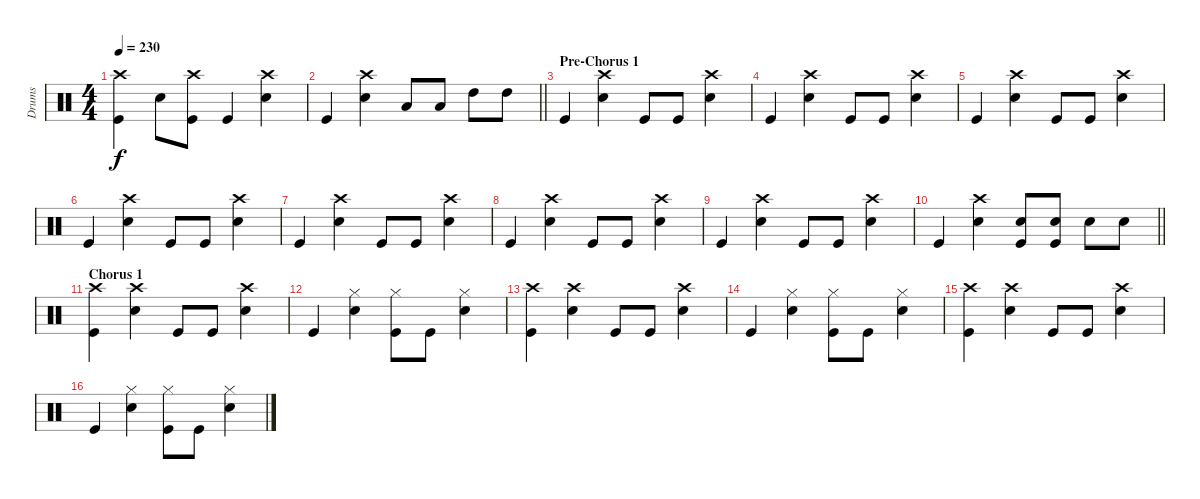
\track ("Drums" "Drums") {instrument percussion}
\staff {score}
\articulation defaults
\ts (4 4)
\tempo 230
\clef neutral
\ks c
("Crash high (hit)" "Kick (hit)").4{dy f} "Snare (hit) 2".8 ("Crash high (hit)" "Kick (hit)").8 "Kick (hit)".4 ("Crash high (hit)" "Snare (hit) 2").4 |
\barLineRight lightlight "Kick (hit)".4
("Crash high (hit)" "Snare (hit) 2").4 "Low Tom (hit)".8 "Low Tom (hit)".8 "High Tom (hit)".8 "High Tom (hit)".8 |
\section ("" "Pre-Chorus 1")
"Kick (hit)".4 ("Crash high (hit)" "Snare (hit) 2").4 "Kick (hit)".8 "Kick (hit)".8 ("Crash high (hit)" "Snare (hit) 2").4 |
"Kick (hit)".4 ("Crash high (hit)" "Snare (hit) 2").4 "Kick (hit)".8 "Kick (hit)".8 ("Crash high (hit)" "Snare (hit) 2").4 |
"Kick (hit)".4 ("Crash high (hit)" "Snare (hit) 2").4 "Kick (hit)".8 "Kick (hit)".8 ("Crash high (hit)" "Snare (hit) 2").4 |
"Kick (hit)".4 ("Crash high (hit)" "Snare (hit) 2").4 "Kick (hit)".8 "Kick (hit)".8 ("Crash high (hit)" "Snare (hit) 2").4 |
"Kick (hit)".4 ("Crash high (hit)" "Snare (hit) 2").4 "Kick (hit)".8 "Kick (hit)".8 ("Crash high (hit)" "Snare (hit) 2").4 |
"Kick (hit)".4 ("Crash high (hit)" "Snare (hit) 2").4 "Kick (hit)".8 "Kick (hit)".8 ("Crash high (hit)" "Snare (hit) 2").4 |
"Kick (hit)".4 ("Crash high (hit)" "Snare (hit) 2").4 "Kick (hit)".8 "Kick (hit)".8 ("Crash high (hit)" "Snare (hit) 2").4 |
\barLineRight lightlight "Kick (hit)".4
("Crash high (hit)" "Snare (hit) 2").4 ("Snare (hit) 2" "Kick (hit)").8 ("Snare (hit) 2" "Kick (hit)").8 "Snare (hit) 2".8 "Snare (hit) 2".8 |
\section ("" "Chorus 1")
("Crash high (hit)" "Kick (hit)").4 ("Crash high (hit)" "Snare (hit) 2").4 "Kick (hit)".8 "Kick (hit)".8 ("Crash high (hit)" "Snare (hit) 2").4 |
"Kick (hit)".4 ("Hi-Hat (closed)" "Snare (hit) 2").4 ("Hi-Hat (closed)" "Kick (hit)").8 "Kick (hit)".8 ("Hi-Hat (closed)" "Snare (hit) 2").4 |
("Crash high (hit)" "Kick (hit)").4 ("Crash high (hit)" "Snare (hit) 2").4 "Kick (hit)".8 "Kick (hit)".8 ("Crash high (hit)" "Snare (hit) 2").4 |
"Kick (hit)".4 ("Hi-Hat (closed)" "Snare (hit) 2").4 ("Hi-Hat (closed)" "Kick (hit)").8 "Kick (hit)".8 ("Hi-Hat (closed)" "Snare (hit) 2").4 |
("Crash high (hit)" "Kick (hit)").4 ("Crash high (hit)" "Snare (hit) 2").4 "Kick (hit)".8 "Kick (hit)".8 ("Crash high (hit)" "Snare (hit) 2").4 |
"Kick (hit)".4 ("Hi-Hat (closed)" "Snare (hit) 2").4 ("Hi-Hat (closed)" "Kick (hit)").8 "Kick (hit)".8 ("Hi-Hat (closed)" "Snare (hit) 2").4
